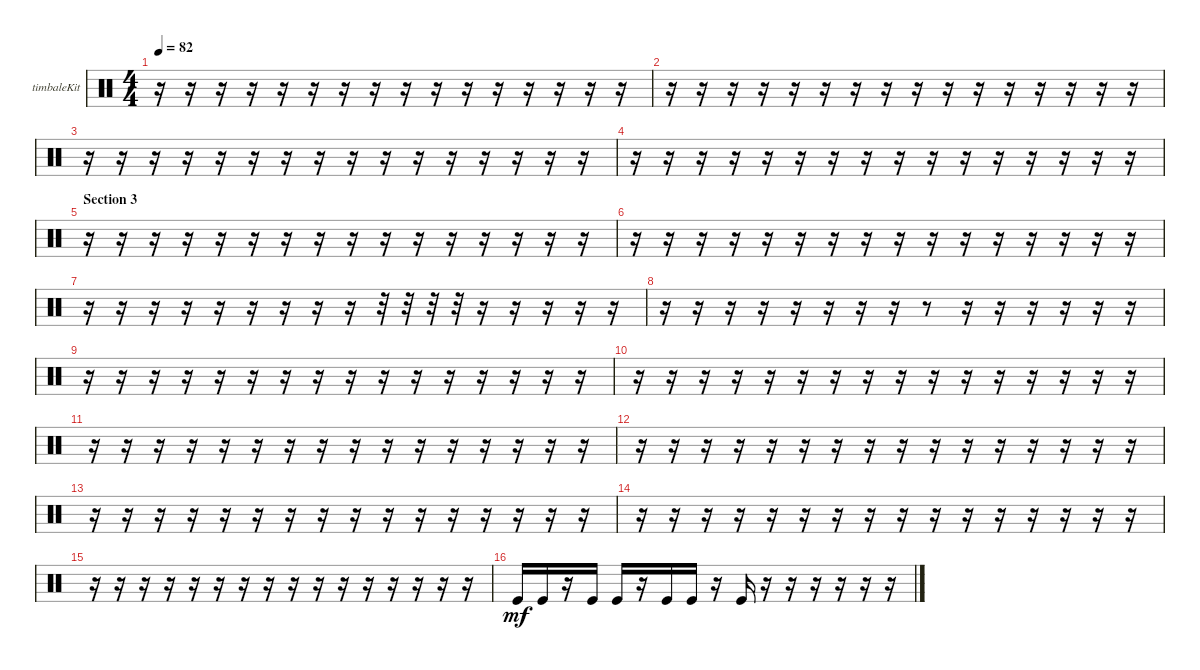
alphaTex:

\bracketExtendMode groupsimilarinstruments
\firstSystemTrackNameOrientation horizontal
\otherSystemsTrackNameOrientation horizontal
\track ("Timbale" "timbaleKit") {instrument percussion}
\staff {score}
\articulation defaults
\ts (4 4)
\tempo 82
\clef neutral
\ks aminor
r.16{dy mf} r.16 r.16 r.16 r.16 r.16 r.16 r.16 r.16 r.16 r.16 r.16 r.16 r.16 r.16 r.16 |
r.16 r.16 r.16 r.16 r.16 r.16 r.16 r.16 r.16 r.16 r.16 r.16 r.16 r.16 r.16 r.16 |
r.16 r.16 r.16 r.16 r.16 r.16 r.16 r.16 r.16 r.16 r.16 r.16 r.16 r.16 r.16 r.16 |
r.16 r.16 r.16 r.16 r.16 r.16 r.16 r.16 r.16 r.16 r.16 r.16 r.16 r.16 r.16 r.16 |
\section ("" "Section 3")
r.16 r.16 r.16 r.16 r.16 r.16 r.16 r.16 r.16 r.16 r.16 r.16 r.16 r.16 r.16 r.16 |
r.16 r.16 r.16 r.16 r.16 r.16 r.16 r.16 r.16 r.16 r.16 r.16 r.16 r.16 r.16 r.16 |
r.16 r.16 r.16 r.16 r.16 r.16 r.16 r.16 r.16 r.32 r.32 r.32 r.32 r.16 r.16 r.16 r.16 r.16 |
r.16 r.16 r.16 r.16 r.16 r.16 r.16 r.16 r.8 r.16 r.16 r.16 r.16 r.16 r.16 |
r.16 r.16 r.16 r.16 r.16 r.16 r.16 r.16 r.16 r.16 r.16 r.16 r.16 r.16 r.16 r.16 |
r.16 r.16 r.16 r.16 r.16 r.16 r.16 r.16 r.16 r.16 r.16 r.16 r.16 r.16 r.16 r.16 |
r.16 r.16 r.16 r.16 r.16 r.16 r.16 r.16 r.16 r.16 r.16 r.16 r.16 r.16 r.16 r.16 |
r.16 r.16 r.16 r.16 r.16 r.16 r.16 r.16 r.16 r.16 r.16 r.16 r.16 r.16 r.16 r.16 |
r.16 r.16 r.16 r.16 r.16 r.16 r.16 r.16 r.16 r.16 r.16 r.16 r.16 r.16 r.16 r.16 |
r.16 r.16 r.16 r.16 r.16 r.16 r.16 r.16 r.16 r.16 r.16 r.16 r.16 r.16 r.16 r.16 |
r.16 r.16 r.16 r.16 r.16 r.16 r.16 r.16 r.16 r.16 r.16 r.16 r.16 r.16 r.16 r.16 |
"Kick (hit)".16 "Kick (hit)".16 r.16 "Kick (hit)".16 "Kick (hit)".16 r.16 "Kick (hit)".16 "Kick (hit)".16 r.16 "Kick (hit)".16 r.16 r.16 r.16 r.16 r.16 r.16
